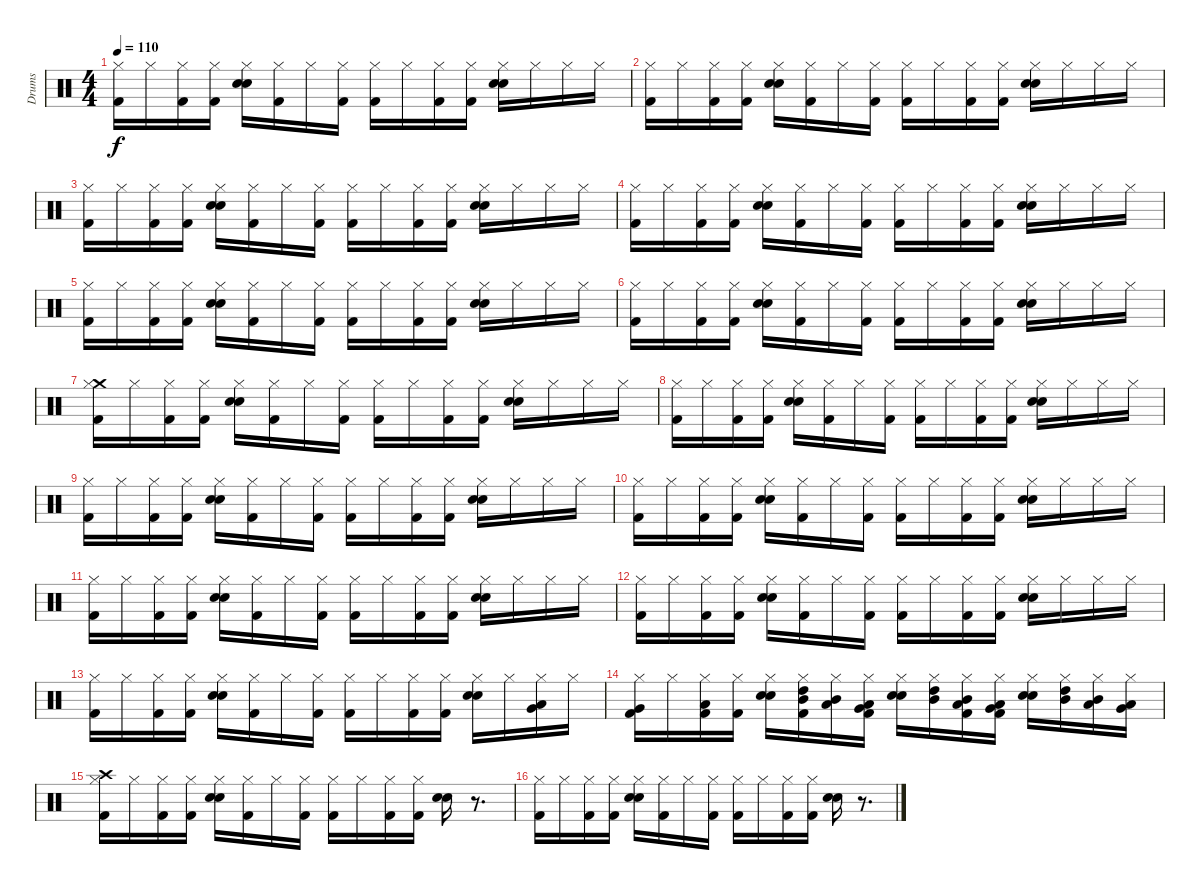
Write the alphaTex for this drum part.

\track ("Drums" "Drums") {instrument percussion}
\staff {score}
\articulation defaults
\ts (4 4)
\tempo 110
\clef neutral
\ks c
("Kick (hit) 2" "Hi-Hat (closed)").16{dy f} "Hi-Hat (closed)".16 ("Kick (hit) 2" "Hi-Hat (closed)").16 ("Kick (hit) 2" "Hi-Hat (closed)").16 ("Electric Snare (hit)" "Snare (hit) 2" "Hi-Hat (closed)").16 ("Kick (hit) 2" "Hi-Hat (closed)").16 "Hi-Hat (closed)".16 ("Kick (hit) 2" "Hi-Hat (closed)").16 ("Kick (hit) 2" "Hi-Hat (closed)").16 "Hi-Hat (closed)".16 ("Kick (hit) 2" "Hi-Hat (closed)").16 ("Kick (hit) 2" "Hi-Hat (closed)").16 ("Electric Snare (hit)" "Snare (hit) 2" "Hi-Hat (closed)").16 "Hi-Hat (closed)".16 "Hi-Hat (closed)".16 "Hi-Hat (closed)".16 |
("Kick (hit) 2" "Hi-Hat (closed)").16 "Hi-Hat (closed)".16 ("Kick (hit) 2" "Hi-Hat (closed)").16 ("Kick (hit) 2" "Hi-Hat (closed)").16 ("Electric Snare (hit)" "Snare (hit) 2" "Hi-Hat (closed)").16 ("Kick (hit) 2" "Hi-Hat (closed)").16 "Hi-Hat (closed)".16 ("Kick (hit) 2" "Hi-Hat (closed)").16 ("Kick (hit) 2" "Hi-Hat (closed)").16 "Hi-Hat (closed)".16 ("Kick (hit) 2" "Hi-Hat (closed)").16 ("Kick (hit) 2" "Hi-Hat (closed)").16 ("Electric Snare (hit)" "Snare (hit) 2" "Hi-Hat (closed)").16 "Hi-Hat (closed)".16 "Hi-Hat (closed)".16 "Hi-Hat (closed)".16 |
("Kick (hit) 2" "Hi-Hat (closed)").16 "Hi-Hat (closed)".16 ("Kick (hit) 2" "Hi-Hat (closed)").16 ("Kick (hit) 2" "Hi-Hat (closed)").16 ("Electric Snare (hit)" "Snare (hit) 2" "Hi-Hat (closed)").16 ("Kick (hit) 2" "Hi-Hat (closed)").16 "Hi-Hat (closed)".16 ("Kick (hit) 2" "Hi-Hat (closed)").16 ("Kick (hit) 2" "Hi-Hat (closed)").16 "Hi-Hat (closed)".16 ("Kick (hit) 2" "Hi-Hat (closed)").16 ("Kick (hit) 2" "Hi-Hat (closed)").16 ("Electric Snare (hit)" "Snare (hit) 2" "Hi-Hat (closed)").16 "Hi-Hat (closed)".16 "Hi-Hat (closed)".16 "Hi-Hat (closed)".16 |
("Kick (hit) 2" "Hi-Hat (closed)").16 "Hi-Hat (closed)".16 ("Kick (hit) 2" "Hi-Hat (closed)").16 ("Kick (hit) 2" "Hi-Hat (closed)").16 ("Electric Snare (hit)" "Snare (hit) 2" "Hi-Hat (closed)").16 ("Kick (hit) 2" "Hi-Hat (closed)").16 "Hi-Hat (closed)".16 ("Kick (hit) 2" "Hi-Hat (closed)").16 ("Kick (hit) 2" "Hi-Hat (closed)").16 "Hi-Hat (closed)".16 ("Kick (hit) 2" "Hi-Hat (closed)").16 ("Kick (hit) 2" "Hi-Hat (closed)").16 ("Electric Snare (hit)" "Snare (hit) 2" "Hi-Hat (closed)").16 "Hi-Hat (closed)".16 "Hi-Hat (closed)".16 "Hi-Hat (closed)".16 |
("Kick (hit) 2" "Hi-Hat (closed)").16 "Hi-Hat (closed)".16 ("Kick (hit) 2" "Hi-Hat (closed)").16 ("Kick (hit) 2" "Hi-Hat (closed)").16 ("Electric Snare (hit)" "Snare (hit) 2" "Hi-Hat (closed)").16 ("Kick (hit) 2" "Hi-Hat (closed)").16 "Hi-Hat (closed)".16 ("Kick (hit) 2" "Hi-Hat (closed)").16 ("Kick (hit) 2" "Hi-Hat (closed)").16 "Hi-Hat (closed)".16 ("Kick (hit) 2" "Hi-Hat (closed)").16 ("Kick (hit) 2" "Hi-Hat (closed)").16 ("Electric Snare (hit)" "Snare (hit) 2" "Hi-Hat (closed)").16 "Hi-Hat (closed)".16 "Hi-Hat (closed)".16 "Hi-Hat (closed)".16 |
("Kick (hit) 2" "Hi-Hat (closed)").16 "Hi-Hat (closed)".16 ("Kick (hit) 2" "Hi-Hat (closed)").16 ("Kick (hit) 2" "Hi-Hat (closed)").16 ("Electric Snare (hit)" "Snare (hit) 2" "Hi-Hat (closed)").16 ("Kick (hit) 2" "Hi-Hat (closed)").16 "Hi-Hat (closed)".16 ("Kick (hit) 2" "Hi-Hat (closed)").16 ("Kick (hit) 2" "Hi-Hat (closed)").16 "Hi-Hat (closed)".16 ("Kick (hit) 2" "Hi-Hat (closed)").16 ("Kick (hit) 2" "Hi-Hat (closed)").16 ("Electric Snare (hit)" "Snare (hit) 2" "Hi-Hat (closed)").16 "Hi-Hat (closed)".16 "Hi-Hat (closed)".16 "Hi-Hat (closed)".16 |
("Crash medium (hit)" "Hi-Hat (closed)" "Kick (hit) 2").16 "Hi-Hat (closed)".16 ("Hi-Hat (closed)" "Kick (hit) 2").16 ("Hi-Hat (closed)" "Kick (hit) 2").16 ("Hi-Hat (closed)" "Electric Snare (hit)" "Snare (hit) 2").16 ("Hi-Hat (closed)" "Kick (hit) 2").16 "Hi-Hat (closed)".16 ("Hi-Hat (closed)" "Kick (hit) 2").16 ("Hi-Hat (closed)" "Kick (hit) 2").16 "Hi-Hat (closed)".16 ("Hi-Hat (closed)" "Kick (hit) 2").16 ("Hi-Hat (closed)" "Kick (hit) 2").16 ("Hi-Hat (closed)" "Electric Snare (hit)" "Snare (hit) 2").16 "Hi-Hat (closed)".16 "Hi-Hat (closed)".16 "Hi-Hat (closed)".16 |
("Hi-Hat (closed)" "Kick (hit) 2").16 "Hi-Hat (closed)".16 ("Hi-Hat (closed)" "Kick (hit) 2").16 ("Hi-Hat (closed)" "Kick (hit) 2").16 ("Hi-Hat (closed)" "Electric Snare (hit)" "Snare (hit) 2").16 ("Hi-Hat (closed)" "Kick (hit) 2").16 "Hi-Hat (closed)".16 ("Hi-Hat (closed)" "Kick (hit) 2").16 ("Hi-Hat (closed)" "Kick (hit) 2").16 "Hi-Hat (closed)".16 ("Hi-Hat (closed)" "Kick (hit) 2").16 ("Hi-Hat (closed)" "Kick (hit) 2").16 ("Hi-Hat (closed)" "Electric Snare (hit)" "Snare (hit) 2").16 "Hi-Hat (closed)".16 "Hi-Hat (closed)".16 "Hi-Hat (closed)".16 |
("Hi-Hat (closed)" "Kick (hit) 2").16 "Hi-Hat (closed)".16 ("Hi-Hat (closed)" "Kick (hit) 2").16 ("Hi-Hat (closed)" "Kick (hit) 2").16 ("Hi-Hat (closed)" "Electric Snare (hit)" "Snare (hit) 2").16 ("Hi-Hat (closed)" "Kick (hit) 2").16 "Hi-Hat (closed)".16 ("Hi-Hat (closed)" "Kick (hit) 2").16 ("Hi-Hat (closed)" "Kick (hit) 2").16 "Hi-Hat (closed)".16 ("Hi-Hat (closed)" "Kick (hit) 2").16 ("Hi-Hat (closed)" "Kick (hit) 2").16 ("Hi-Hat (closed)" "Electric Snare (hit)" "Snare (hit) 2").16 "Hi-Hat (closed)".16 "Hi-Hat (closed)".16 "Hi-Hat (closed)".16 |
("Kick (hit) 2" "Hi-Hat (closed)").16 "Hi-Hat (closed)".16 ("Kick (hit) 2" "Hi-Hat (closed)").16 ("Kick (hit) 2" "Hi-Hat (closed)").16 ("Electric Snare (hit)" "Snare (hit) 2" "Hi-Hat (closed)").16 ("Kick (hit) 2" "Hi-Hat (closed)").16 "Hi-Hat (closed)".16 ("Kick (hit) 2" "Hi-Hat (closed)").16 ("Kick (hit) 2" "Hi-Hat (closed)").16 "Hi-Hat (closed)".16 ("Kick (hit) 2" "Hi-Hat (closed)").16 ("Kick (hit) 2" "Hi-Hat (closed)").16 ("Electric Snare (hit)" "Snare (hit) 2" "Hi-Hat (closed)").16 "Hi-Hat (closed)".16 "Hi-Hat (closed)".16 "Hi-Hat (closed)".16 |
("Kick (hit) 2" "Hi-Hat (closed)").16 "Hi-Hat (closed)".16 ("Kick (hit) 2" "Hi-Hat (closed)").16 ("Kick (hit) 2" "Hi-Hat (closed)").16 ("Electric Snare (hit)" "Snare (hit) 2" "Hi-Hat (closed)").16 ("Kick (hit) 2" "Hi-Hat (closed)").16 "Hi-Hat (closed)".16 ("Kick (hit) 2" "Hi-Hat (closed)").16 ("Kick (hit) 2" "Hi-Hat (closed)").16 "Hi-Hat (closed)".16 ("Kick (hit) 2" "Hi-Hat (closed)").16 ("Kick (hit) 2" "Hi-Hat (closed)").16 ("Electric Snare (hit)" "Snare (hit) 2" "Hi-Hat (closed)").16 "Hi-Hat (closed)".16 "Hi-Hat (closed)".16 "Hi-Hat (closed)".16 |
("Kick (hit) 2" "Hi-Hat (closed)").16 "Hi-Hat (closed)".16 ("Kick (hit) 2" "Hi-Hat (closed)").16 ("Kick (hit) 2" "Hi-Hat (closed)").16 ("Electric Snare (hit)" "Snare (hit) 2" "Hi-Hat (closed)").16 ("Kick (hit) 2" "Hi-Hat (closed)").16 "Hi-Hat (closed)".16 ("Kick (hit) 2" "Hi-Hat (closed)").16 ("Kick (hit) 2" "Hi-Hat (closed)").16 "Hi-Hat (closed)".16 ("Kick (hit) 2" "Hi-Hat (closed)").16 ("Kick (hit) 2" "Hi-Hat (closed)").16 ("Electric Snare (hit)" "Snare (hit) 2" "Hi-Hat (closed)").16 "Hi-Hat (closed)".16 "Hi-Hat (closed)".16 "Hi-Hat (closed)".16 |
("Kick (hit) 2" "Hi-Hat (closed)").16 "Hi-Hat (closed)".16 ("Kick (hit) 2" "Hi-Hat (closed)").16 ("Kick (hit) 2" "Hi-Hat (closed)").16 ("Electric Snare (hit)" "Snare (hit) 2" "Hi-Hat (closed)").16 ("Kick (hit) 2" "Hi-Hat (closed)").16 "Hi-Hat (closed)".16 ("Kick (hit) 2" "Hi-Hat (closed)").16 ("Kick (hit) 2" "Hi-Hat (closed)").16 "Hi-Hat (closed)".16 ("Kick (hit) 2" "Hi-Hat (closed)").16 ("Kick (hit) 2" "Hi-Hat (closed)").16 ("Electric Snare (hit)" "Snare (hit) 2" "Hi-Hat (closed)").16 "Hi-Hat (closed)".16 ("Low Tom (hit)" "Very Low Tom (hit)" "Hi-Hat (closed)").16 "Hi-Hat (closed)".16 |
("Very Low Tom (hit)" "Kick (hit) 2" "Hi-Hat (closed)").16 "Hi-Hat (closed)".16 ("Low Floor Tom (hit)" "Kick (hit) 2" "Hi-Hat (closed)").16 ("Kick (hit) 2" "Hi-Hat (closed)").16 ("Electric Snare (hit)" "Snare (hit) 2" "Hi-Hat (closed)").16 ("Mid Tom (hit)" "High Tom (hit)" "Kick (hit) 2" "Hi-Hat (closed)").16 ("Low Tom (hit)" "Mid Tom (hit)" "Hi-Hat (closed)").16 ("Low Floor Tom (hit)" "Very Low Tom (hit)" "Kick (hit) 2" "Hi-Hat (closed)").16 ("Electric Snare (hit)" "Snare (hit) 2" "Hi-Hat (closed)").16 ("Mid Tom (hit)" "High Tom (hit)" "Hi-Hat (closed)").16 ("Low Tom (hit)" "Mid Tom (hit)" "Kick (hit) 2" "Hi-Hat (closed)").16 ("Very Low Tom (hit)" "Low Tom (hit)" "Kick (hit) 2" "Hi-Hat (closed)").16 ("Electric Snare (hit)" "Snare (hit) 2" "Hi-Hat (closed)").16 ("Mid Tom (hit)" "High Tom (hit)" "Hi-Hat (closed)").16 ("Low Tom (hit)" "Mid Tom (hit)" "Hi-Hat (closed)").16 ("Very Low Tom (hit)" "Low Tom (hit)" "Hi-Hat (closed)").16 |
("Crash high (hit)" "Hi-Hat (closed)" "Kick (hit) 2").16 "Hi-Hat (closed)".16 ("Hi-Hat (closed)" "Kick (hit) 2").16 ("Hi-Hat (closed)" "Kick (hit) 2").16 ("Hi-Hat (closed)" "Electric Snare (hit)" "Snare (hit) 2").16 ("Hi-Hat (closed)" "Kick (hit) 2").16 "Hi-Hat (closed)".16 ("Hi-Hat (closed)" "Kick (hit) 2").16 ("Hi-Hat (closed)" "Kick (hit) 2").16 "Hi-Hat (closed)".16 ("Hi-Hat (closed)" "Kick (hit) 2").16 ("Hi-Hat (closed)" "Kick (hit) 2").16 ("Electric Snare (hit)" "Snare (hit) 2").16 r.8{d} |
("Hi-Hat (closed)" "Kick (hit) 2").16 "Hi-Hat (closed)".16 ("Hi-Hat (closed)" "Kick (hit) 2").16 ("Hi-Hat (closed)" "Kick (hit) 2").16 ("Hi-Hat (closed)" "Electric Snare (hit)" "Snare (hit) 2").16 ("Hi-Hat (closed)" "Kick (hit) 2").16 "Hi-Hat (closed)".16 ("Hi-Hat (closed)" "Kick (hit) 2").16 ("Hi-Hat (closed)" "Kick (hit) 2").16 "Hi-Hat (closed)".16 ("Hi-Hat (closed)" "Kick (hit) 2").16 ("Hi-Hat (closed)" "Kick (hit) 2").16 ("Electric Snare (hit)" "Snare (hit) 2").16 r.8{d}
